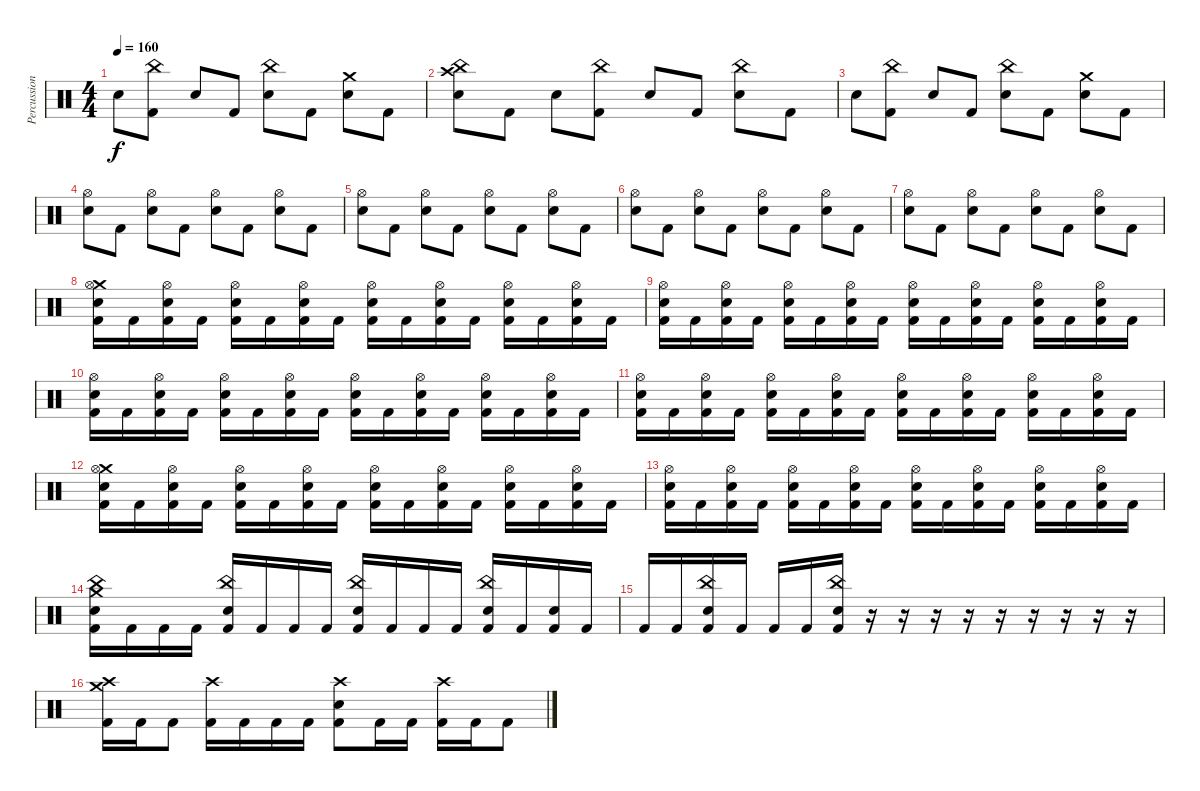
\track ("Percussion" "Percussion") {instrument percussion bank 255}
\staff {score}
\articulation defaults
\ts (4 4)
\tempo 160
\clef neutral
\ks c "Electric Snare (hit)".8{dy f}
("China (hit)" "Kick (hit) 2").8 "Electric Snare (hit)".8 "Kick (hit) 2".8 ("China (hit)" "Electric Snare (hit)").8 "Kick (hit) 2".8 ("Crash medium (hit)" "Electric Snare (hit)").8 "Kick (hit) 2".8 |
("Crash high (hit)" "China (hit)" "Electric Snare (hit)").8 "Kick (hit) 2".8 "Electric Snare (hit)".8 ("China (hit)" "Kick (hit) 2").8 "Electric Snare (hit)".8 "Kick (hit) 2".8 ("China (hit)" "Electric Snare (hit)").8 "Kick (hit) 2".8 |
"Electric Snare (hit)".8 ("China (hit)" "Kick (hit) 2").8 "Electric Snare (hit)".8 "Kick (hit) 2".8 ("China (hit)" "Electric Snare (hit)").8 "Kick (hit) 2".8 ("Crash medium (hit)" "Electric Snare (hit)").8 "Kick (hit) 2".8 |
("Hi-Hat (open)" "Electric Snare (hit)").8 "Kick (hit) 2".8 ("Hi-Hat (open)" "Electric Snare (hit)").8 "Kick (hit) 2".8 ("Hi-Hat (open)" "Electric Snare (hit)").8 "Kick (hit) 2".8 ("Hi-Hat (open)" "Electric Snare (hit)").8 "Kick (hit) 2".8 |
("Hi-Hat (open)" "Electric Snare (hit)").8 "Kick (hit) 2".8 ("Hi-Hat (open)" "Electric Snare (hit)").8 "Kick (hit) 2".8 ("Hi-Hat (open)" "Electric Snare (hit)").8 "Kick (hit) 2".8 ("Hi-Hat (open)" "Electric Snare (hit)").8 "Kick (hit) 2".8 |
("Hi-Hat (open)" "Electric Snare (hit)").8 "Kick (hit) 2".8 ("Hi-Hat (open)" "Electric Snare (hit)").8 "Kick (hit) 2".8 ("Hi-Hat (open)" "Electric Snare (hit)").8 "Kick (hit) 2".8 ("Hi-Hat (open)" "Electric Snare (hit)").8 "Kick (hit) 2".8 |
("Hi-Hat (open)" "Electric Snare (hit)").8 "Kick (hit) 2".8 ("Hi-Hat (open)" "Electric Snare (hit)").8 "Kick (hit) 2".8 ("Hi-Hat (open)" "Electric Snare (hit)").8 "Kick (hit) 2".8 ("Hi-Hat (open)" "Electric Snare (hit)").8 "Kick (hit) 2".8 |
("Crash medium (hit)" "Hi-Hat (open)" "Electric Snare (hit)" "Kick (hit) 2").16 "Kick (hit) 2".16 ("Hi-Hat (open)" "Electric Snare (hit)" "Kick (hit) 2").16 "Kick (hit) 2".16 ("Hi-Hat (open)" "Electric Snare (hit)" "Kick (hit) 2").16 "Kick (hit) 2".16 ("Hi-Hat (open)" "Electric Snare (hit)" "Kick (hit) 2").16 "Kick (hit) 2".16 ("Hi-Hat (open)" "Electric Snare (hit)" "Kick (hit) 2").16 "Kick (hit) 2".16 ("Hi-Hat (open)" "Electric Snare (hit)" "Kick (hit) 2").16 "Kick (hit) 2".16 ("Hi-Hat (open)" "Electric Snare (hit)" "Kick (hit) 2").16 "Kick (hit) 2".16 ("Hi-Hat (open)" "Electric Snare (hit)" "Kick (hit) 2").16 "Kick (hit) 2".16 |
("Hi-Hat (open)" "Electric Snare (hit)" "Kick (hit) 2").16 "Kick (hit) 2".16 ("Hi-Hat (open)" "Electric Snare (hit)" "Kick (hit) 2").16 "Kick (hit) 2".16 ("Hi-Hat (open)" "Electric Snare (hit)" "Kick (hit) 2").16 "Kick (hit) 2".16 ("Hi-Hat (open)" "Electric Snare (hit)" "Kick (hit) 2").16 "Kick (hit) 2".16 ("Hi-Hat (open)" "Electric Snare (hit)" "Kick (hit) 2").16 "Kick (hit) 2".16 ("Hi-Hat (open)" "Electric Snare (hit)" "Kick (hit) 2").16 "Kick (hit) 2".16 ("Hi-Hat (open)" "Electric Snare (hit)" "Kick (hit) 2").16 "Kick (hit) 2".16 ("Hi-Hat (open)" "Electric Snare (hit)" "Kick (hit) 2").16 "Kick (hit) 2".16 |
("Hi-Hat (open)" "Electric Snare (hit)" "Kick (hit) 2").16 "Kick (hit) 2".16 ("Hi-Hat (open)" "Electric Snare (hit)" "Kick (hit) 2").16 "Kick (hit) 2".16 ("Hi-Hat (open)" "Electric Snare (hit)" "Kick (hit) 2").16 "Kick (hit) 2".16 ("Hi-Hat (open)" "Electric Snare (hit)" "Kick (hit) 2").16 "Kick (hit) 2".16 ("Hi-Hat (open)" "Electric Snare (hit)" "Kick (hit) 2").16 "Kick (hit) 2".16 ("Hi-Hat (open)" "Electric Snare (hit)" "Kick (hit) 2").16 "Kick (hit) 2".16 ("Hi-Hat (open)" "Electric Snare (hit)" "Kick (hit) 2").16 "Kick (hit) 2".16 ("Hi-Hat (open)" "Electric Snare (hit)" "Kick (hit) 2").16 "Kick (hit) 2".16 |
("Hi-Hat (open)" "Electric Snare (hit)" "Kick (hit) 2").16 "Kick (hit) 2".16 ("Hi-Hat (open)" "Electric Snare (hit)" "Kick (hit) 2").16 "Kick (hit) 2".16 ("Hi-Hat (open)" "Electric Snare (hit)" "Kick (hit) 2").16 "Kick (hit) 2".16 ("Hi-Hat (open)" "Electric Snare (hit)" "Kick (hit) 2").16 "Kick (hit) 2".16 ("Hi-Hat (open)" "Electric Snare (hit)" "Kick (hit) 2").16 "Kick (hit) 2".16 ("Hi-Hat (open)" "Electric Snare (hit)" "Kick (hit) 2").16 "Kick (hit) 2".16 ("Hi-Hat (open)" "Electric Snare (hit)" "Kick (hit) 2").16 "Kick (hit) 2".16 ("Hi-Hat (open)" "Electric Snare (hit)" "Kick (hit) 2").16 "Kick (hit) 2".16 |
("Crash medium (hit)" "Hi-Hat (open)" "Electric Snare (hit)" "Kick (hit) 2").16 "Kick (hit) 2".16 ("Hi-Hat (open)" "Electric Snare (hit)" "Kick (hit) 2").16 "Kick (hit) 2".16 ("Hi-Hat (open)" "Electric Snare (hit)" "Kick (hit) 2").16 "Kick (hit) 2".16 ("Hi-Hat (open)" "Electric Snare (hit)" "Kick (hit) 2").16 "Kick (hit) 2".16 ("Hi-Hat (open)" "Electric Snare (hit)" "Kick (hit) 2").16 "Kick (hit) 2".16 ("Hi-Hat (open)" "Electric Snare (hit)" "Kick (hit) 2").16 "Kick (hit) 2".16 ("Hi-Hat (open)" "Electric Snare (hit)" "Kick (hit) 2").16 "Kick (hit) 2".16 ("Hi-Hat (open)" "Electric Snare (hit)" "Kick (hit) 2").16 "Kick (hit) 2".16 |
("Hi-Hat (open)" "Electric Snare (hit)" "Kick (hit) 2").16 "Kick (hit) 2".16 ("Hi-Hat (open)" "Electric Snare (hit)" "Kick (hit) 2").16 "Kick (hit) 2".16 ("Hi-Hat (open)" "Electric Snare (hit)" "Kick (hit) 2").16 "Kick (hit) 2".16 ("Hi-Hat (open)" "Electric Snare (hit)" "Kick (hit) 2").16 "Kick (hit) 2".16 ("Hi-Hat (open)" "Electric Snare (hit)" "Kick (hit) 2").16 "Kick (hit) 2".16 ("Hi-Hat (open)" "Electric Snare (hit)" "Kick (hit) 2").16 "Kick (hit) 2".16 ("Hi-Hat (open)" "Electric Snare (hit)" "Kick (hit) 2").16 "Kick (hit) 2".16 ("Hi-Hat (open)" "Electric Snare (hit)" "Kick (hit) 2").16 "Kick (hit) 2".16 |
("Crash medium (hit)" "China (hit)" "Electric Snare (hit)" "Kick (hit) 2").16 "Kick (hit) 2".16 "Kick (hit) 2".16 "Kick (hit) 2".16 ("China (hit)" "Electric Snare (hit)" "Kick (hit) 2").16 "Kick (hit) 2".16 "Kick (hit) 2".16 "Kick (hit) 2".16 ("China (hit)" "Electric Snare (hit)" "Kick (hit) 2").16 "Kick (hit) 2".16 "Kick (hit) 2".16 "Kick (hit) 2".16 ("China (hit)" "Electric Snare (hit)" "Kick (hit) 2").16 "Kick (hit) 2".16 ("Electric Snare (hit)" "Kick (hit) 2").16 "Kick (hit) 2".16 |
"Kick (hit) 2".16 "Kick (hit) 2".16 ("China (hit)" "Electric Snare (hit)" "Kick (hit) 2").16 "Kick (hit) 2".16 "Kick (hit) 2".16 "Kick (hit) 2".16 ("China (hit)" "Electric Snare (hit)" "Kick (hit) 2").16 r.16 r.16 r.16 r.16 r.16 r.16 r.16 r.16 r.16 |
("Crash medium (hit)" "Crash high (hit)" "Kick (hit) 2").16 "Kick (hit) 2".16 "Kick (hit) 2".8 ("Crash high (hit)" "Kick (hit) 2").16 "Kick (hit) 2".16 "Kick (hit) 2".16 "Kick (hit) 2".16 ("Crash high (hit)" "Electric Snare (hit)" "Kick (hit) 2").8 "Kick (hit) 2".16 "Kick (hit) 2".16 ("Crash high (hit)" "Kick (hit) 2").16 "Kick (hit) 2".16 "Kick (hit) 2".8
